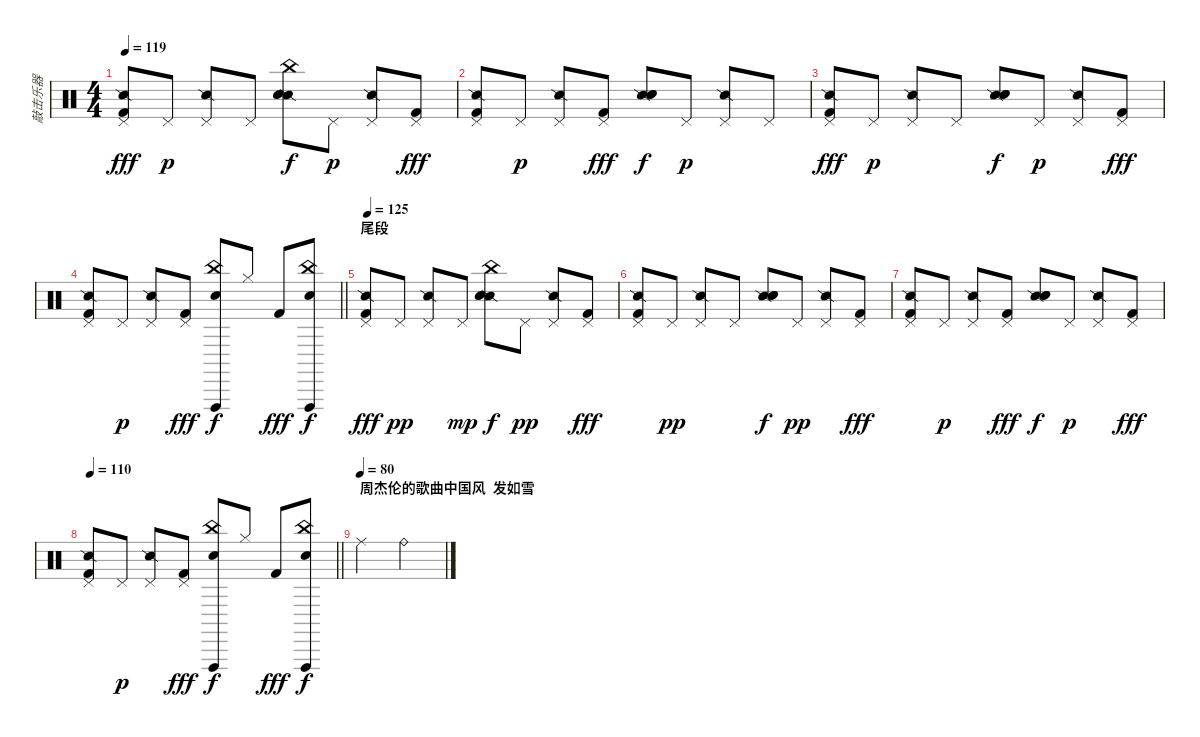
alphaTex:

\track ("敲击乐器" "敲击乐器") {instrument percussion}
\staff {score}
\articulation defaults
\ts (4 4)
\tempo 119
\clef neutral
\ks c
("Snare (side stick) 2" "Pedal Hi-Hat (hit)" "Kick (hit) 2").8{dy fff} "Pedal Hi-Hat (hit)".8{dy p} ("Snare (side stick) 2" "Pedal Hi-Hat (hit)").8 "Pedal Hi-Hat (hit)".8 ("Snare (side stick) 2" "Snare (hit) 2" "Hand Clap (hit)" "China (hit)").8{dy f} "Pedal Hi-Hat (hit)".8{dy p} ("Snare (side stick) 2" "Pedal Hi-Hat (hit)").8 ("Pedal Hi-Hat (hit)" "Kick (hit) 2").8{dy fff} |
("Snare (side stick) 2" "Pedal Hi-Hat (hit)" "Kick (hit) 2").8 "Pedal Hi-Hat (hit)".8{dy p} ("Snare (side stick) 2" "Pedal Hi-Hat (hit)").8 ("Pedal Hi-Hat (hit)" "Kick (hit) 2").8{dy fff} ("Snare (side stick) 2" "Snare (hit) 2" "Hand Clap (hit)").8{dy f} "Pedal Hi-Hat (hit)".8{dy p} ("Snare (side stick) 2" "Pedal Hi-Hat (hit)").8 "Pedal Hi-Hat (hit)".8 |
("Snare (side stick) 2" "Pedal Hi-Hat (hit)" "Kick (hit) 2").8{dy fff} "Pedal Hi-Hat (hit)".8{dy p} ("Snare (side stick) 2" "Pedal Hi-Hat (hit)").8 "Pedal Hi-Hat (hit)".8 ("Snare (side stick) 2" "Snare (hit) 2" "Hand Clap (hit)").8{dy f} "Pedal Hi-Hat (hit)".8{dy p} ("Snare (side stick) 2" "Pedal Hi-Hat (hit)").8 ("Pedal Hi-Hat (hit)" "Kick (hit) 2").8{dy fff} |
\barLineRight lightlight
("Snare (side stick) 2" "Pedal Hi-Hat (hit)" "Kick (hit) 2").8 "Pedal Hi-Hat (hit)".8{dy p} ("Snare (side stick) 2" "Pedal Hi-Hat (hit)").8 ("Pedal Hi-Hat (hit)" "Kick (hit) 2").8{dy fff} ("China (hit)" "Vibraslap (hit)" "Hand Clap (hit)").8{dy f} "Hi-Hat (closed)".8 "Kick (hit) 2".8{dy fff} ("China (hit)" "Vibraslap (hit)" "Hand Clap (hit)").8{dy f} |
\section ("" "尾段 ")
\tempo 125
("Snare (side stick) 2" "Pedal Hi-Hat (hit)" "Kick (hit) 2").8{dy fff} "Pedal Hi-Hat (hit)".8{dy pp} ("Snare (side stick) 2" "Pedal Hi-Hat (hit)").8 "Pedal Hi-Hat (hit)".8{dy mp} ("Snare (side stick) 2" "Snare (hit) 2" "Hand Clap (hit)" "China (hit)").8{dy f} "Pedal Hi-Hat (hit)".8{dy pp} ("Snare (side stick) 2" "Pedal Hi-Hat (hit)").8 ("Pedal Hi-Hat (hit)" "Kick (hit) 2").8{dy fff} |
("Snare (side stick) 2" "Pedal Hi-Hat (hit)" "Kick (hit) 2").8 "Pedal Hi-Hat (hit)".8{dy pp} ("Snare (side stick) 2" "Pedal Hi-Hat (hit)").8 "Pedal Hi-Hat (hit)".8 ("Snare (side stick) 2" "Snare (hit) 2" "Hand Clap (hit)").8{dy f} "Pedal Hi-Hat (hit)".8{dy pp} ("Snare (side stick) 2" "Pedal Hi-Hat (hit)").8 ("Pedal Hi-Hat (hit)" "Kick (hit) 2").8{dy fff} |
("Snare (side stick) 2" "Pedal Hi-Hat (hit)" "Kick (hit) 2").8 "Pedal Hi-Hat (hit)".8{dy p} ("Snare (side stick) 2" "Pedal Hi-Hat (hit)").8 ("Pedal Hi-Hat (hit)" "Kick (hit) 2").8{dy fff} ("Snare (side stick) 2" "Snare (hit) 2" "Hand Clap (hit)").8{dy f} "Pedal Hi-Hat (hit)".8{dy p} ("Snare (side stick) 2" "Pedal Hi-Hat (hit)").8 ("Pedal Hi-Hat (hit)" "Kick (hit) 2").8{dy fff} |
\tempo 110
\barLineRight lightlight
("Snare (side stick) 2" "Pedal Hi-Hat (hit)" "Kick (hit) 2").8 "Pedal Hi-Hat (hit)".8{dy p} ("Snare (side stick) 2" "Pedal Hi-Hat (hit)").8 ("Pedal Hi-Hat (hit)" "Kick (hit) 2").8{dy fff} ("China (hit)" "Vibraslap (hit)" "Hand Clap (hit)").8{dy f} "Hi-Hat (closed)".8 "Kick (hit) 2".8{dy fff} ("China (hit)" "Vibraslap (hit)" "Hand Clap (hit)").8{dy f} |
\section ("" " 周杰伦的歌曲中国风  发如雪")
\tempo (80)
"Ride (middle)".2 "Ride (bell)".2
